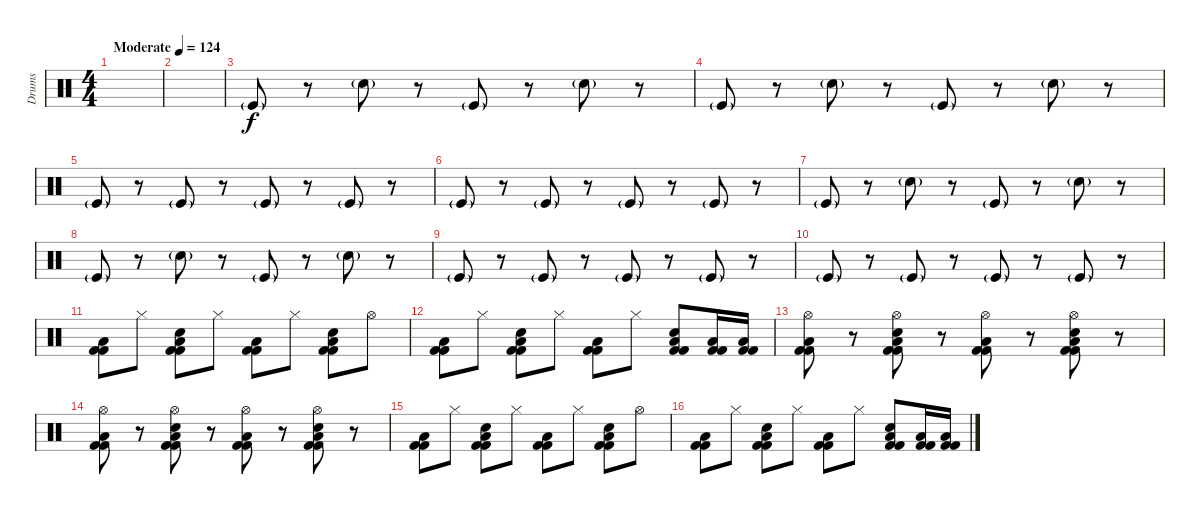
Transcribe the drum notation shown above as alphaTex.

\track ("Drums" "Drums") {instrument percussion}
\staff {score}
\articulation defaults
\ts (4 4)
\tempo (124 "Moderate")
\clef neutral
\ks c
|
|
"Kick (hit)"{g}.8 r.8 "Electric Snare (hit)"{g}.8 r.8 "Kick (hit)"{g}.8 r.8 "Electric Snare (hit)"{g}.8 r.8 |
"Kick (hit)"{g}.8 r.8 "Electric Snare (hit)"{g}.8 r.8 "Kick (hit)"{g}.8 r.8 "Electric Snare (hit)"{g}.8 r.8 |
"Kick (hit)"{g}.8 r.8 "Kick (hit)"{g}.8 r.8 "Kick (hit)"{g}.8 r.8 "Kick (hit)"{g}.8 r.8 |
"Kick (hit)"{g}.8 r.8 "Kick (hit)"{g}.8 r.8 "Kick (hit)"{g}.8 r.8 "Kick (hit)"{g}.8 r.8 |
"Kick (hit)"{g}.8 r.8 "Electric Snare (hit)"{g}.8 r.8 "Kick (hit)"{g}.8 r.8 "Electric Snare (hit)"{g}.8 r.8 |
"Kick (hit)"{g}.8 r.8 "Electric Snare (hit)"{g}.8 r.8 "Kick (hit)"{g}.8 r.8 "Electric Snare (hit)"{g}.8 r.8 |
"Kick (hit)"{g}.8 r.8 "Kick (hit)"{g}.8 r.8 "Kick (hit)"{g}.8 r.8 "Kick (hit)"{g}.8 r.8 |
"Kick (hit)"{g}.8 r.8 "Kick (hit)"{g}.8 r.8 "Kick (hit)"{g}.8 r.8 "Kick (hit)"{g}.8 r.8 |
("Kick (hit) 2" "Low Floor Tom (hit)" "Kick (hit) 2").8{dy f} "Hi-Hat (closed)".8 ("Electric Snare (hit)" "Kick (hit) 2" "Low Floor Tom (hit)" "Kick (hit) 2").8 "Hi-Hat (closed)".8 ("Kick (hit) 2" "Low Floor Tom (hit)" "Kick (hit) 2").8 "Hi-Hat (closed)".8 ("Electric Snare (hit)" "Kick (hit) 2" "Low Floor Tom (hit)" "Kick (hit) 2").8 "Hi-Hat (open)".8 |
("Kick (hit) 2" "Low Floor Tom (hit)" "Kick (hit) 2").8 "Hi-Hat (closed)".8 ("Electric Snare (hit)" "Kick (hit) 2" "Low Floor Tom (hit)" "Kick (hit) 2").8 "Hi-Hat (closed)".8 ("Kick (hit) 2" "Low Floor Tom (hit)" "Kick (hit) 2").8 "Hi-Hat (closed)".8 ("Electric Snare (hit)" "Kick (hit) 2" "Low Floor Tom (hit)" "Kick (hit) 2").8 ("Kick (hit) 2" "Low Floor Tom (hit)" "Kick (hit) 2").16 ("Kick (hit) 2" "Low Floor Tom (hit)" "Kick (hit) 2").16 |
("Hi-Hat (open)" "Kick (hit) 2" "Low Floor Tom (hit)" "Kick (hit) 2").8 r.8 ("Hi-Hat (open)" "Electric Snare (hit)" "Kick (hit) 2" "Low Floor Tom (hit)" "Kick (hit) 2").8 r.8 ("Hi-Hat (open)" "Kick (hit) 2" "Low Floor Tom (hit)" "Kick (hit) 2").8 r.8 ("Hi-Hat (open)" "Electric Snare (hit)" "Kick (hit) 2" "Low Floor Tom (hit)" "Kick (hit) 2").8 r.8 |
("Hi-Hat (open)" "Kick (hit) 2" "Low Floor Tom (hit)" "Kick (hit) 2").8 r.8 ("Hi-Hat (open)" "Electric Snare (hit)" "Kick (hit) 2" "Low Floor Tom (hit)" "Kick (hit) 2").8 r.8 ("Hi-Hat (open)" "Kick (hit) 2" "Low Floor Tom (hit)" "Kick (hit) 2").8 r.8 ("Hi-Hat (open)" "Electric Snare (hit)" "Kick (hit) 2" "Low Floor Tom (hit)" "Kick (hit) 2").8 r.8 |
("Kick (hit) 2" "Low Floor Tom (hit)" "Kick (hit) 2").8 "Hi-Hat (closed)".8 ("Electric Snare (hit)" "Kick (hit) 2" "Low Floor Tom (hit)" "Kick (hit) 2").8 "Hi-Hat (closed)".8 ("Kick (hit) 2" "Low Floor Tom (hit)" "Kick (hit) 2").8 "Hi-Hat (closed)".8 ("Electric Snare (hit)" "Kick (hit) 2" "Low Floor Tom (hit)" "Kick (hit) 2").8 "Hi-Hat (open)".8 |
("Kick (hit) 2" "Low Floor Tom (hit)" "Kick (hit) 2").8 "Hi-Hat (closed)".8 ("Electric Snare (hit)" "Kick (hit) 2" "Low Floor Tom (hit)" "Kick (hit) 2").8 "Hi-Hat (closed)".8 ("Kick (hit) 2" "Low Floor Tom (hit)" "Kick (hit) 2").8 "Hi-Hat (closed)".8 ("Electric Snare (hit)" "Kick (hit) 2" "Low Floor Tom (hit)" "Kick (hit) 2").8 ("Kick (hit) 2" "Low Floor Tom (hit)" "Kick (hit) 2").16 ("Kick (hit) 2" "Low Floor Tom (hit)" "Kick (hit) 2").16
